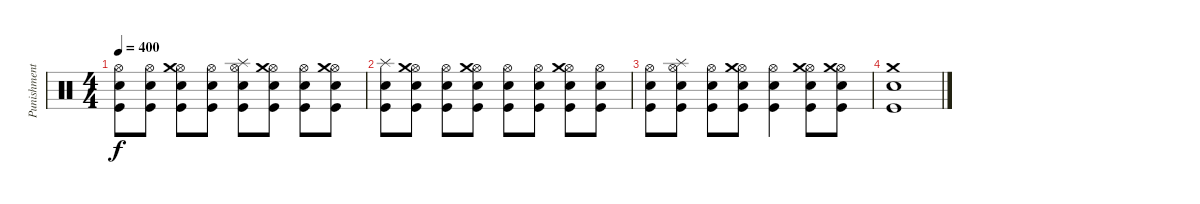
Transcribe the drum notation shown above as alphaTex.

\track ("Punishment" "Punishment") {instrument percussion}
\staff {score}
\articulation defaults
\ts (4 4)
\tempo 400
\clef neutral
\ks c
("Kick (hit)" "Electric Snare (hit)" "Hi-Hat (open)").8{dy f} ("Kick (hit)" "Electric Snare (hit)" "Hi-Hat (open)").8 ("Kick (hit)" "Electric Snare (hit)" "Hi-Hat (open)" "Crash medium (hit)").8 ("Kick (hit)" "Electric Snare (hit)" "Hi-Hat (open)").8 ("Kick (hit)" "Electric Snare (hit)" "Hi-Hat (open)" "Splash (hit)").8 ("Kick (hit)" "Electric Snare (hit)" "Hi-Hat (open)" "Crash medium (hit)").8 ("Kick (hit)" "Electric Snare (hit)" "Hi-Hat (open)").8 ("Kick (hit)" "Electric Snare (hit)" "Hi-Hat (open)" "Crash medium (hit)").8 |
("Kick (hit)" "Electric Snare (hit)" "Splash (hit)").8 ("Kick (hit)" "Electric Snare (hit)" "Hi-Hat (open)" "Crash medium (hit)").8 ("Kick (hit)" "Electric Snare (hit)" "Hi-Hat (open)").8 ("Kick (hit)" "Electric Snare (hit)" "Hi-Hat (open)" "Crash medium (hit)").8 ("Kick (hit)" "Electric Snare (hit)" "Hi-Hat (open)").8 ("Kick (hit)" "Electric Snare (hit)" "Hi-Hat (open)").8 ("Kick (hit)" "Electric Snare (hit)" "Hi-Hat (open)" "Crash medium (hit)").8 ("Kick (hit)" "Electric Snare (hit)" "Hi-Hat (open)").8 |
("Kick (hit)" "Electric Snare (hit)" "Hi-Hat (open)").8 ("Kick (hit)" "Electric Snare (hit)" "Hi-Hat (open)" "Splash (hit)").8 ("Kick (hit)" "Electric Snare (hit)" "Hi-Hat (open)").8 ("Kick (hit)" "Electric Snare (hit)" "Hi-Hat (open)" "Crash medium (hit)").8 ("Kick (hit)" "Electric Snare (hit)" "Hi-Hat (open)").4 ("Kick (hit)" "Electric Snare (hit)" "Hi-Hat (open)" "Crash medium (hit)").8 ("Kick (hit)" "Electric Snare (hit)" "Hi-Hat (open)" "Crash medium (hit)").8 |
("Kick (hit)" "Electric Snare (hit)" "Crash medium (hit)").1
